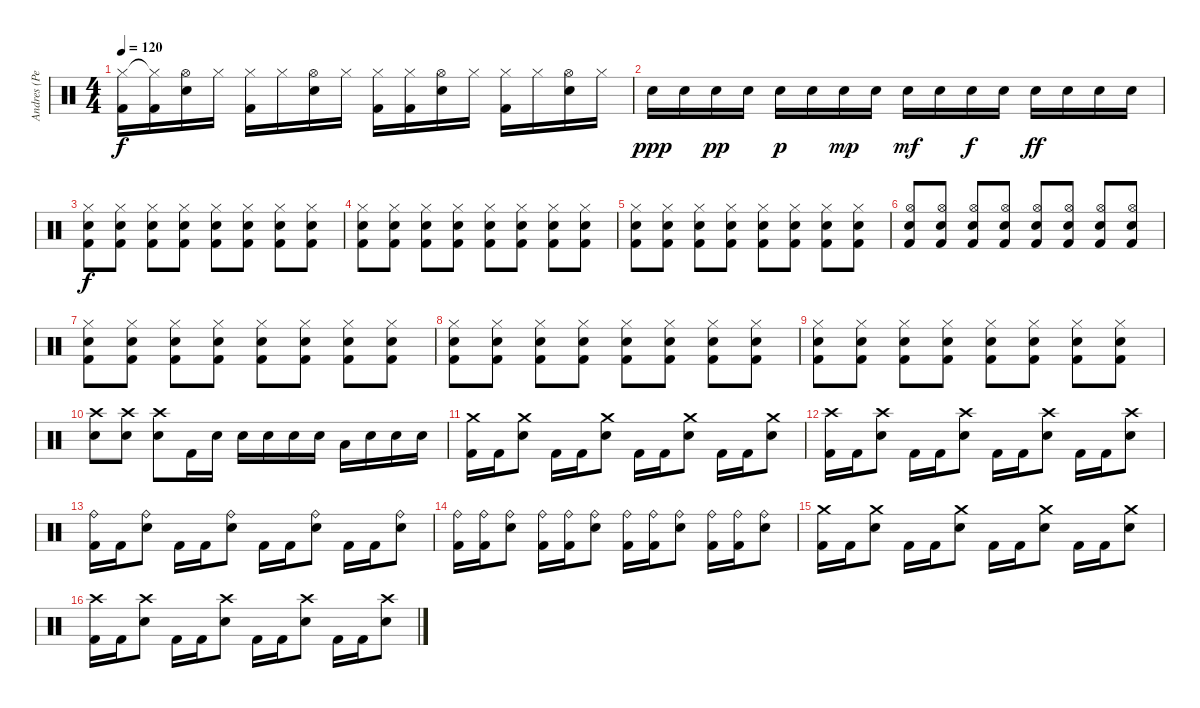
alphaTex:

\track ("Andres (Percussion)" "Andres (Pe") {instrument percussion}
\staff {score}
\articulation defaults
\ts (4 4)
\tempo 120
\clef neutral
\ks c
("Hi-Hat (closed)" "Kick (hit) 2").16{dy f} ("Hi-Hat (closed)"{t} "Kick (hit) 2").16 ("Hi-Hat (open)" "Electric Snare (hit)").16 "Hi-Hat (closed)".16 ("Hi-Hat (closed)" "Kick (hit) 2").16 "Hi-Hat (closed)".16 ("Hi-Hat (open)" "Electric Snare (hit)").16 "Hi-Hat (closed)".16 ("Hi-Hat (closed)" "Kick (hit) 2").16 ("Hi-Hat (closed)" "Kick (hit) 2").16 ("Hi-Hat (open)" "Electric Snare (hit)").16 "Hi-Hat (closed)".16 ("Hi-Hat (closed)" "Kick (hit) 2").16 "Hi-Hat (closed)".16 ("Hi-Hat (open)" "Electric Snare (hit)").16 "Hi-Hat (closed)".16 |
"Electric Snare (hit)".16{dy ppp} "Electric Snare (hit)".16 "Electric Snare (hit)".16{dy pp} "Electric Snare (hit)".16 "Electric Snare (hit)".16{dy p} "Electric Snare (hit)".16 "Electric Snare (hit)".16{dy mp} "Electric Snare (hit)".16 "Electric Snare (hit)".16{dy mf} "Electric Snare (hit)".16 "Electric Snare (hit)".16{dy f} "Electric Snare (hit)".16 "Electric Snare (hit)".16{dy ff} "Electric Snare (hit)".16 "Electric Snare (hit)".16 "Electric Snare (hit)".16 |
("Hi-Hat (closed)" "Electric Snare (hit)" "Kick (hit) 2").8{dy f} ("Hi-Hat (closed)" "Electric Snare (hit)" "Kick (hit) 2").8 ("Hi-Hat (closed)" "Electric Snare (hit)" "Kick (hit) 2").8 ("Hi-Hat (closed)" "Electric Snare (hit)" "Kick (hit) 2").8 ("Hi-Hat (closed)" "Electric Snare (hit)" "Kick (hit) 2").8 ("Hi-Hat (closed)" "Electric Snare (hit)" "Kick (hit) 2").8 ("Hi-Hat (closed)" "Electric Snare (hit)" "Kick (hit) 2").8 ("Hi-Hat (closed)" "Electric Snare (hit)" "Kick (hit) 2").8 |
("Hi-Hat (closed)" "Electric Snare (hit)" "Kick (hit) 2").8 ("Hi-Hat (closed)" "Electric Snare (hit)" "Kick (hit) 2").8 ("Hi-Hat (closed)" "Electric Snare (hit)" "Kick (hit) 2").8 ("Hi-Hat (closed)" "Electric Snare (hit)" "Kick (hit) 2").8 ("Hi-Hat (closed)" "Electric Snare (hit)" "Kick (hit) 2").8 ("Hi-Hat (closed)" "Electric Snare (hit)" "Kick (hit) 2").8 ("Hi-Hat (closed)" "Electric Snare (hit)" "Kick (hit) 2").8 ("Hi-Hat (closed)" "Electric Snare (hit)" "Kick (hit) 2").8 |
("Hi-Hat (closed)" "Electric Snare (hit)" "Kick (hit) 2").8 ("Hi-Hat (closed)" "Electric Snare (hit)" "Kick (hit) 2").8 ("Hi-Hat (closed)" "Electric Snare (hit)" "Kick (hit) 2").8 ("Hi-Hat (closed)" "Electric Snare (hit)" "Kick (hit) 2").8 ("Hi-Hat (closed)" "Electric Snare (hit)" "Kick (hit) 2").8 ("Hi-Hat (closed)" "Electric Snare (hit)" "Kick (hit) 2").8 ("Hi-Hat (closed)" "Electric Snare (hit)" "Kick (hit) 2").8 ("Hi-Hat (closed)" "Electric Snare (hit)" "Kick (hit) 2").8 |
("Hi-Hat (open)" "Electric Snare (hit)" "Kick (hit) 2").8 ("Hi-Hat (open)" "Electric Snare (hit)" "Kick (hit) 2").8 ("Hi-Hat (open)" "Electric Snare (hit)" "Kick (hit) 2").8 ("Hi-Hat (open)" "Electric Snare (hit)" "Kick (hit) 2").8 ("Hi-Hat (open)" "Electric Snare (hit)" "Kick (hit) 2").8 ("Hi-Hat (open)" "Electric Snare (hit)" "Kick (hit) 2").8 ("Hi-Hat (open)" "Electric Snare (hit)" "Kick (hit) 2").8 ("Hi-Hat (open)" "Electric Snare (hit)" "Kick (hit) 2").8 |
("Hi-Hat (closed)" "Electric Snare (hit)" "Kick (hit) 2").8 ("Hi-Hat (closed)" "Electric Snare (hit)" "Kick (hit) 2").8 ("Hi-Hat (closed)" "Electric Snare (hit)" "Kick (hit) 2").8 ("Hi-Hat (closed)" "Electric Snare (hit)" "Kick (hit) 2").8 ("Hi-Hat (closed)" "Electric Snare (hit)" "Kick (hit) 2").8 ("Hi-Hat (closed)" "Electric Snare (hit)" "Kick (hit) 2").8 ("Hi-Hat (closed)" "Electric Snare (hit)" "Kick (hit) 2").8 ("Hi-Hat (closed)" "Electric Snare (hit)" "Kick (hit) 2").8 |
("Hi-Hat (closed)" "Electric Snare (hit)" "Kick (hit) 2").8 ("Hi-Hat (closed)" "Electric Snare (hit)" "Kick (hit) 2").8 ("Hi-Hat (closed)" "Electric Snare (hit)" "Kick (hit) 2").8 ("Hi-Hat (closed)" "Electric Snare (hit)" "Kick (hit) 2").8 ("Hi-Hat (closed)" "Electric Snare (hit)" "Kick (hit) 2").8 ("Hi-Hat (closed)" "Electric Snare (hit)" "Kick (hit) 2").8 ("Hi-Hat (closed)" "Electric Snare (hit)" "Kick (hit) 2").8 ("Hi-Hat (closed)" "Electric Snare (hit)" "Kick (hit) 2").8 |
("Hi-Hat (closed)" "Electric Snare (hit)" "Kick (hit) 2").8 ("Hi-Hat (closed)" "Electric Snare (hit)" "Kick (hit) 2").8 ("Hi-Hat (closed)" "Electric Snare (hit)" "Kick (hit) 2").8 ("Hi-Hat (closed)" "Electric Snare (hit)" "Kick (hit) 2").8 ("Hi-Hat (closed)" "Electric Snare (hit)" "Kick (hit) 2").8 ("Hi-Hat (closed)" "Electric Snare (hit)" "Kick (hit) 2").8 ("Hi-Hat (closed)" "Electric Snare (hit)" "Kick (hit) 2").8 ("Hi-Hat (closed)" "Electric Snare (hit)" "Kick (hit) 2").8 |
("Crash high (hit)" "Electric Snare (hit)").8 ("Crash high (hit)" "Electric Snare (hit)").8 ("Crash high (hit)" "Electric Snare (hit)").8 "Kick (hit) 2".16 "Electric Snare (hit)".16 "Electric Snare (hit)".16 "Electric Snare (hit)".16 "Electric Snare (hit)".16 "Electric Snare (hit)".16 "Low Tom (hit)".16 "Electric Snare (hit)".16 "Electric Snare (hit)".16 "Electric Snare (hit)".16 |
("Crash medium (hit)" "Kick (hit) 2").16 "Kick (hit) 2".16 ("Crash medium (hit)" "Electric Snare (hit)").8 "Kick (hit) 2".16 "Kick (hit) 2".16 ("Crash medium (hit)" "Electric Snare (hit)").8 "Kick (hit) 2".16 "Kick (hit) 2".16 ("Crash medium (hit)" "Electric Snare (hit)").8 "Kick (hit) 2".16 "Kick (hit) 2".16 ("Crash medium (hit)" "Electric Snare (hit)").8 |
("Crash high (hit)" "Kick (hit) 2").16 "Kick (hit) 2".16 ("Crash high (hit)" "Electric Snare (hit)").8 "Kick (hit) 2".16 "Kick (hit) 2".16 ("Crash high (hit)" "Electric Snare (hit)").8 "Kick (hit) 2".16 "Kick (hit) 2".16 ("Crash high (hit)" "Electric Snare (hit)").8 "Kick (hit) 2".16 "Kick (hit) 2".16 ("Crash high (hit)" "Electric Snare (hit)").8 |
("Ride (bell)" "Kick (hit) 2").16 "Kick (hit) 2".16 ("Ride (bell)" "Electric Snare (hit)").8 "Kick (hit) 2".16 "Kick (hit) 2".16 ("Ride (bell)" "Electric Snare (hit)").8 "Kick (hit) 2".16 "Kick (hit) 2".16 ("Ride (bell)" "Electric Snare (hit)").8 "Kick (hit) 2".16 "Kick (hit) 2".16 ("Ride (bell)" "Electric Snare (hit)").8 |
("Ride (bell)" "Kick (hit) 2").16 ("Ride (bell)" "Kick (hit) 2").16 ("Ride (bell)" "Electric Snare (hit)").8 ("Ride (bell)" "Kick (hit) 2").16 ("Ride (bell)" "Kick (hit) 2").16 ("Ride (bell)" "Electric Snare (hit)").8 ("Ride (bell)" "Kick (hit) 2").16 ("Ride (bell)" "Kick (hit) 2").16 ("Ride (bell)" "Electric Snare (hit)").8 ("Ride (bell)" "Kick (hit) 2").16 ("Ride (bell)" "Kick (hit) 2").16 ("Ride (bell)" "Electric Snare (hit)").8 |
("Crash medium (hit)" "Kick (hit) 2").16 "Kick (hit) 2".16 ("Crash medium (hit)" "Electric Snare (hit)").8 "Kick (hit) 2".16 "Kick (hit) 2".16 ("Crash medium (hit)" "Electric Snare (hit)").8 "Kick (hit) 2".16 "Kick (hit) 2".16 ("Crash medium (hit)" "Electric Snare (hit)").8 "Kick (hit) 2".16 "Kick (hit) 2".16 ("Crash medium (hit)" "Electric Snare (hit)").8 |
("Crash high (hit)" "Kick (hit) 2").16 "Kick (hit) 2".16 ("Crash high (hit)" "Electric Snare (hit)").8 "Kick (hit) 2".16 "Kick (hit) 2".16 ("Crash high (hit)" "Electric Snare (hit)").8 "Kick (hit) 2".16 "Kick (hit) 2".16 ("Crash high (hit)" "Electric Snare (hit)").8 "Kick (hit) 2".16 "Kick (hit) 2".16 ("Crash high (hit)" "Electric Snare (hit)").8
